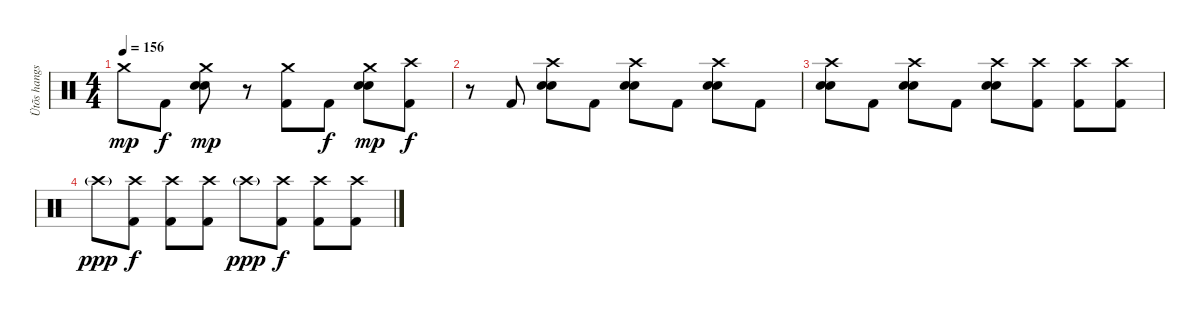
\track ("Ütõs hangszer" "Ütõs hangs") {instrument percussion}
\staff {score}
\articulation defaults
\ts (4 4)
\tempo 156
\clef neutral
\ks c "Crash medium (hit)".8{dy mp} "Kick (hit) 2".8{dy f}
("Crash medium (hit)" "Snare (hit) 2" "Electric Snare (hit)").8{dy mp} r.8 ("Crash medium (hit)" "Kick (hit) 2").8 "Kick (hit) 2".8{dy f} ("Crash medium (hit)" "Snare (hit) 2" "Electric Snare (hit)").8{dy mp} ("Crash high (hit)" "Kick (hit) 2").8{dy f} |
r.8 "Kick (hit) 2".8 ("Crash high (hit)" "Snare (hit) 2" "Electric Snare (hit)").8 "Kick (hit) 2".8 ("Crash high (hit)" "Snare (hit) 2" "Electric Snare (hit)").8 "Kick (hit) 2".8 ("Crash high (hit)" "Snare (hit) 2" "Electric Snare (hit)").8 "Kick (hit) 2".8 |
("Crash high (hit)" "Snare (hit) 2" "Electric Snare (hit)").8 "Kick (hit) 2".8 ("Crash high (hit)" "Snare (hit) 2" "Electric Snare (hit)").8 "Kick (hit) 2".8 ("Crash high (hit)" "Snare (hit) 2" "Electric Snare (hit)").8 ("Crash high (hit)" "Kick (hit) 2").8 ("Crash high (hit)" "Kick (hit) 2").8 ("Crash high (hit)" "Kick (hit) 2").8 |
"Crash high (hit)"{g}.8{dy ppp} ("Crash high (hit)" "Kick (hit) 2").8{dy f} ("Crash high (hit)" "Kick (hit) 2").8 ("Crash high (hit)" "Kick (hit) 2").8 "Crash high (hit)"{g}.8{dy ppp} ("Crash high (hit)" "Kick (hit) 2").8{dy f} ("Crash high (hit)" "Kick (hit) 2").8 ("Crash high (hit)" "Kick (hit) 2").8
